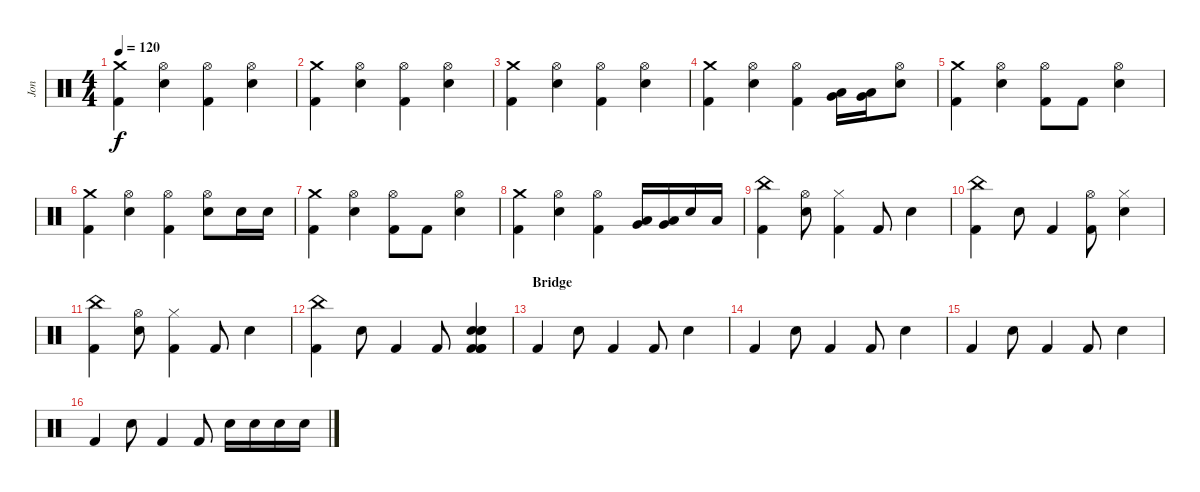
\track ("Jon" "Jon") {instrument percussion}
\staff {score}
\articulation defaults
\ts (4 4)
\tempo 120
\clef neutral
\ks c
("Crash medium (hit)" "Kick (hit) 2").4{dy f} ("Hi-Hat (open)" "Snare (hit) 2").4 ("Hi-Hat (open)" "Kick (hit) 2").4 ("Hi-Hat (open)" "Snare (hit) 2").4 |
("Crash medium (hit)" "Kick (hit) 2").4 ("Hi-Hat (open)" "Snare (hit) 2").4 ("Hi-Hat (open)" "Kick (hit) 2").4 ("Hi-Hat (open)" "Snare (hit) 2").4 |
("Crash medium (hit)" "Kick (hit) 2").4 ("Hi-Hat (open)" "Snare (hit) 2").4 ("Hi-Hat (open)" "Kick (hit) 2").4 ("Hi-Hat (open)" "Snare (hit) 2").4 |
("Crash medium (hit)" "Kick (hit) 2").4 ("Hi-Hat (open)" "Snare (hit) 2").4 ("Hi-Hat (open)" "Kick (hit) 2").4 ("Low Tom (hit)" "Very Low Tom (hit)").16 ("Very Low Tom (hit)" "Low Floor Tom (hit)").16 ("Hi-Hat (open)" "Snare (hit) 2").8 |
("Crash medium (hit)" "Kick (hit) 2").4 ("Hi-Hat (open)" "Snare (hit) 2").4 ("Hi-Hat (open)" "Kick (hit) 2").8 "Kick (hit) 2".8 ("Hi-Hat (open)" "Snare (hit) 2").4 |
("Crash medium (hit)" "Kick (hit) 2").4 ("Hi-Hat (open)" "Snare (hit) 2").4 ("Hi-Hat (open)" "Kick (hit) 2").4 ("Hi-Hat (open)" "Snare (hit) 2").8 "Snare (hit) 2".16 "Snare (hit) 2".16 |
("Crash medium (hit)" "Kick (hit) 2").4 ("Hi-Hat (open)" "Snare (hit) 2").4 ("Hi-Hat (open)" "Kick (hit) 2").8 "Kick (hit) 2".8 ("Hi-Hat (open)" "Snare (hit) 2").4 |
("Crash medium (hit)" "Kick (hit) 2").4 ("Hi-Hat (open)" "Snare (hit) 2").4 ("Hi-Hat (open)" "Kick (hit) 2").4 ("Low Tom (hit)" "Very Low Tom (hit)").16 ("Very Low Tom (hit)" "Low Floor Tom (hit)").16 "Snare (hit) 2".16 "Low Floor Tom (hit)".16 |
("China (hit)" "Kick (hit) 2").4 ("Hi-Hat (open)" "Snare (hit) 2").8 ("Hi-Hat (closed)" "Kick (hit) 2").4 "Kick (hit) 2".8 "Snare (hit) 2".4 |
("China (hit)" "Kick (hit) 2").4 "Snare (hit) 2".8 "Kick (hit) 2".4 ("Hi-Hat (open)" "Kick (hit) 2").8 ("Hi-Hat (closed)" "Snare (hit) 2").4 |
("China (hit)" "Kick (hit) 2").4 ("Hi-Hat (open)" "Snare (hit) 2").8 ("Hi-Hat (closed)" "Kick (hit) 2").4 "Kick (hit) 2".8 "Snare (hit) 2".4 |
("China (hit)" "Kick (hit) 2").4 "Snare (hit) 2".8 "Kick (hit) 2".4 "Kick (hit) 2".8 ("Snare (hit) 2" "Electric Snare (hit)" "Snare (hit) 2" "Kick (hit) 2" "Kick (hit) 2" "Kick (hit) 2").4 |
\section ("" "Bridge")
"Kick (hit) 2".4 "Snare (hit) 2".8 "Kick (hit) 2".4 "Kick (hit) 2".8 "Snare (hit) 2".4 |
"Kick (hit) 2".4 "Snare (hit) 2".8 "Kick (hit) 2".4 "Kick (hit) 2".8 "Snare (hit) 2".4 |
"Kick (hit) 2".4 "Snare (hit) 2".8 "Kick (hit) 2".4 "Kick (hit) 2".8 "Snare (hit) 2".4 |
"Kick (hit) 2".4 "Snare (hit) 2".8 "Kick (hit) 2".4 "Kick (hit) 2".8 "Snare (hit) 2".16 "Snare (hit) 2".16 "Snare (hit) 2".16 "Snare (hit) 2".16
